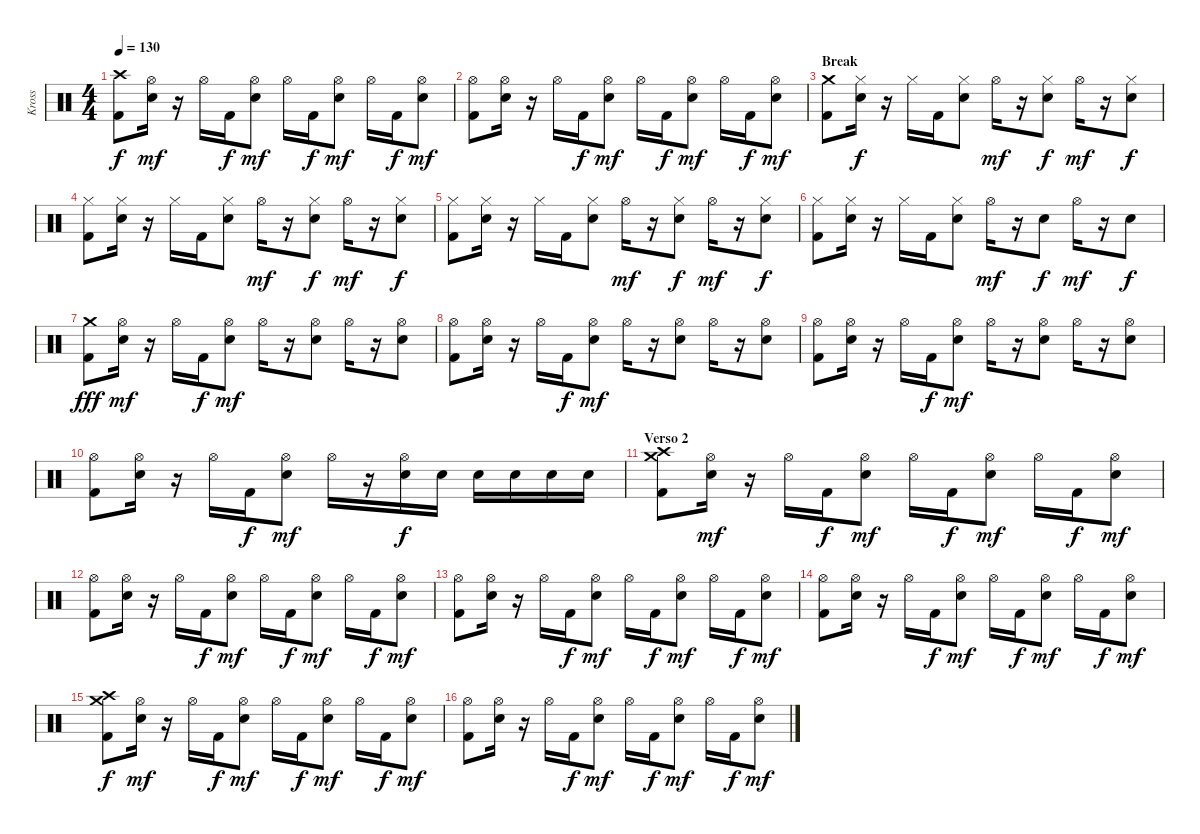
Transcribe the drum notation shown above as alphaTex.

\track ("Kross" "Kross") {instrument percussion}
\staff {score}
\articulation defaults
\ts (4 4)
\tempo 130
\clef neutral
\ks c
("Crash high (hit)" "Kick (hit) 2").8{dy f} ("Hi-Hat (open)" "Snare (hit) 2").16{dy mf} r.16 "Hi-Hat (open)".16 "Kick (hit) 2".16{dy f} ("Hi-Hat (open)" "Snare (hit) 2").8{dy mf} "Hi-Hat (open)".16 "Kick (hit) 2".16{dy f} ("Hi-Hat (open)" "Snare (hit) 2").8{dy mf} "Hi-Hat (open)".16 "Kick (hit) 2".16{dy f} ("Hi-Hat (open)" "Snare (hit) 2").8{dy mf} |
("Hi-Hat (open)" "Kick (hit) 2").8 ("Hi-Hat (open)" "Snare (hit) 2").16 r.16 "Hi-Hat (open)".16 "Kick (hit) 2".16{dy f} ("Hi-Hat (open)" "Snare (hit) 2").8{dy mf} "Hi-Hat (open)".16 "Kick (hit) 2".16{dy f} ("Hi-Hat (open)" "Snare (hit) 2").8{dy mf} "Hi-Hat (open)".16 "Kick (hit) 2".16{dy f} ("Hi-Hat (open)" "Snare (hit) 2").8{dy mf} |
\section ("" "Break")
("Crash medium (hit)" "Kick (hit) 2").8 ("Hi-Hat (closed)" "Snare (hit) 2").16{dy f} r.16 "Hi-Hat (closed)".16 "Kick (hit) 2".16 ("Hi-Hat (closed)" "Snare (hit) 2").8 "Hi-Hat (open)".16{dy mf} r.16 ("Hi-Hat (closed)" "Snare (hit) 2").8{dy f} "Hi-Hat (open)".16{dy mf} r.16 ("Hi-Hat (closed)" "Snare (hit) 2").8{dy f} |
("Hi-Hat (closed)" "Kick (hit) 2").8 ("Hi-Hat (closed)" "Snare (hit) 2").16 r.16 "Hi-Hat (closed)".16 "Kick (hit) 2".16 ("Hi-Hat (closed)" "Snare (hit) 2").8 "Hi-Hat (open)".16{dy mf} r.16 ("Hi-Hat (closed)" "Snare (hit) 2").8{dy f} "Hi-Hat (open)".16{dy mf} r.16 ("Hi-Hat (closed)" "Snare (hit) 2").8{dy f} |
("Hi-Hat (closed)" "Kick (hit) 2").8 ("Hi-Hat (closed)" "Snare (hit) 2").16 r.16 "Hi-Hat (closed)".16 "Kick (hit) 2".16 ("Hi-Hat (closed)" "Snare (hit) 2").8 "Hi-Hat (open)".16{dy mf} r.16 ("Hi-Hat (closed)" "Snare (hit) 2").8{dy f} "Hi-Hat (open)".16{dy mf} r.16 ("Hi-Hat (closed)" "Snare (hit) 2").8{dy f} |
("Hi-Hat (closed)" "Kick (hit) 2").8 ("Hi-Hat (closed)" "Snare (hit) 2").16 r.16 "Hi-Hat (closed)".16 "Kick (hit) 2".16 ("Hi-Hat (closed)" "Snare (hit) 2").8 "Hi-Hat (open)".16{dy mf} r.16 "Snare (hit) 2".8{dy f} "Hi-Hat (open)".16{dy mf} r.16 "Snare (hit) 2".8{dy f} |
("Crash medium (hit)" "Kick (hit) 2").8{dy fff} ("Hi-Hat (open)" "Snare (hit) 2").16{dy mf} r.16 "Hi-Hat (open)".16 "Kick (hit) 2".16{dy f} ("Hi-Hat (open)" "Snare (hit) 2").8{dy mf} "Hi-Hat (open)".16 r.16 ("Hi-Hat (open)" "Snare (hit) 2").8 "Hi-Hat (open)".16 r.16 ("Hi-Hat (open)" "Snare (hit) 2").8 |
("Hi-Hat (open)" "Kick (hit) 2").8 ("Hi-Hat (open)" "Snare (hit) 2").16 r.16 "Hi-Hat (open)".16 "Kick (hit) 2".16{dy f} ("Hi-Hat (open)" "Snare (hit) 2").8{dy mf} "Hi-Hat (open)".16 r.16 ("Hi-Hat (open)" "Snare (hit) 2").8 "Hi-Hat (open)".16 r.16 ("Hi-Hat (open)" "Snare (hit) 2").8 |
("Hi-Hat (open)" "Kick (hit) 2").8 ("Hi-Hat (open)" "Snare (hit) 2").16 r.16 "Hi-Hat (open)".16 "Kick (hit) 2".16{dy f} ("Hi-Hat (open)" "Snare (hit) 2").8{dy mf} "Hi-Hat (open)".16 r.16 ("Hi-Hat (open)" "Snare (hit) 2").8 "Hi-Hat (open)".16 r.16 ("Hi-Hat (open)" "Snare (hit) 2").8 |
("Hi-Hat (open)" "Kick (hit) 2").8 ("Hi-Hat (open)" "Snare (hit) 2").16 r.16 "Hi-Hat (open)".16 "Kick (hit) 2".16{dy f} ("Hi-Hat (open)" "Snare (hit) 2").8{dy mf} "Hi-Hat (open)".16 r.16 ("Hi-Hat (open)" "Snare (hit) 2").16{dy f} "Snare (hit) 2".16 "Snare (hit) 2".16 "Snare (hit) 2".16 "Snare (hit) 2".16 "Snare (hit) 2".16 |
\section ("" "Verso 2")
("Crash high (hit)" "Crash medium (hit)" "Kick (hit) 2").8 ("Hi-Hat (open)" "Snare (hit) 2").16{dy mf} r.16 "Hi-Hat (open)".16 "Kick (hit) 2".16{dy f} ("Hi-Hat (open)" "Snare (hit) 2").8{dy mf} "Hi-Hat (open)".16 "Kick (hit) 2".16{dy f} ("Hi-Hat (open)" "Snare (hit) 2").8{dy mf} "Hi-Hat (open)".16 "Kick (hit) 2".16{dy f} ("Hi-Hat (open)" "Snare (hit) 2").8{dy mf} |
("Hi-Hat (open)" "Kick (hit) 2").8 ("Hi-Hat (open)" "Snare (hit) 2").16 r.16 "Hi-Hat (open)".16 "Kick (hit) 2".16{dy f} ("Hi-Hat (open)" "Snare (hit) 2").8{dy mf} "Hi-Hat (open)".16 "Kick (hit) 2".16{dy f} ("Hi-Hat (open)" "Snare (hit) 2").8{dy mf} "Hi-Hat (open)".16 "Kick (hit) 2".16{dy f} ("Hi-Hat (open)" "Snare (hit) 2").8{dy mf} |
("Hi-Hat (open)" "Kick (hit) 2").8 ("Hi-Hat (open)" "Snare (hit) 2").16 r.16 "Hi-Hat (open)".16 "Kick (hit) 2".16{dy f} ("Hi-Hat (open)" "Snare (hit) 2").8{dy mf} "Hi-Hat (open)".16 "Kick (hit) 2".16{dy f} ("Hi-Hat (open)" "Snare (hit) 2").8{dy mf} "Hi-Hat (open)".16 "Kick (hit) 2".16{dy f} ("Hi-Hat (open)" "Snare (hit) 2").8{dy mf} |
("Hi-Hat (open)" "Kick (hit) 2").8 ("Hi-Hat (open)" "Snare (hit) 2").16 r.16 "Hi-Hat (open)".16 "Kick (hit) 2".16{dy f} ("Hi-Hat (open)" "Snare (hit) 2").8{dy mf} "Hi-Hat (open)".16 "Kick (hit) 2".16{dy f} ("Hi-Hat (open)" "Snare (hit) 2").8{dy mf} "Hi-Hat (open)".16 "Kick (hit) 2".16{dy f} ("Hi-Hat (open)" "Snare (hit) 2").8{dy mf} |
("Crash high (hit)" "Crash medium (hit)" "Kick (hit) 2").8{dy f} ("Hi-Hat (open)" "Snare (hit) 2").16{dy mf} r.16 "Hi-Hat (open)".16 "Kick (hit) 2".16{dy f} ("Hi-Hat (open)" "Snare (hit) 2").8{dy mf} "Hi-Hat (open)".16 "Kick (hit) 2".16{dy f} ("Hi-Hat (open)" "Snare (hit) 2").8{dy mf} "Hi-Hat (open)".16 "Kick (hit) 2".16{dy f} ("Hi-Hat (open)" "Snare (hit) 2").8{dy mf} |
("Hi-Hat (open)" "Kick (hit) 2").8 ("Hi-Hat (open)" "Snare (hit) 2").16 r.16 "Hi-Hat (open)".16 "Kick (hit) 2".16{dy f} ("Hi-Hat (open)" "Snare (hit) 2").8{dy mf} "Hi-Hat (open)".16 "Kick (hit) 2".16{dy f} ("Hi-Hat (open)" "Snare (hit) 2").8{dy mf} "Hi-Hat (open)".16 "Kick (hit) 2".16{dy f} ("Hi-Hat (open)" "Snare (hit) 2").8{dy mf}
